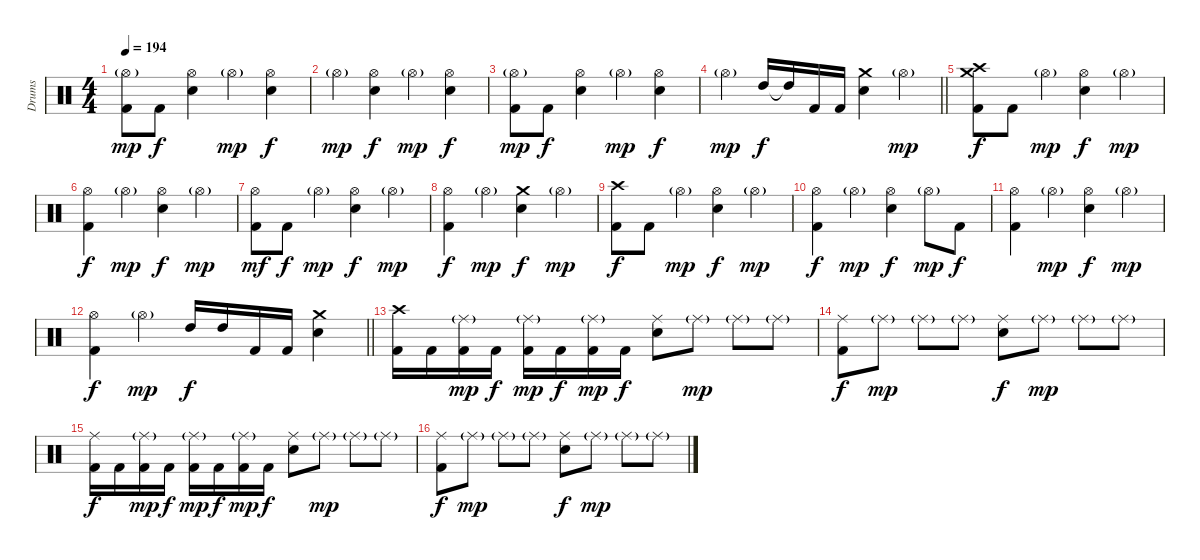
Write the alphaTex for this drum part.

\track ("Drums" "Drums") {instrument percussion}
\staff {score}
\articulation defaults
\ts (4 4)
\tempo 194
\clef neutral
\ks c
("Hi-Hat (open)"{g} "Kick (hit) 2").8{dy mp} "Kick (hit) 2".8{dy f} ("Hi-Hat (open)" "Electric Snare (hit)").4 "Hi-Hat (open)"{g}.4{dy mp} ("Hi-Hat (open)" "Electric Snare (hit)").4{dy f} |
"Hi-Hat (open)"{g}.4{dy mp} ("Hi-Hat (open)" "Electric Snare (hit)").4{dy f} "Hi-Hat (open)"{g}.4{dy mp} ("Hi-Hat (open)" "Electric Snare (hit)").4{dy f} |
("Hi-Hat (open)"{g} "Kick (hit) 2").8{dy mp} "Kick (hit) 2".8{dy f} ("Hi-Hat (open)" "Electric Snare (hit)").4 "Hi-Hat (open)"{g}.4{dy mp} ("Hi-Hat (open)" "Electric Snare (hit)").4{dy f} |
\barLineRight lightlight "Hi-Hat (open)"{g}.4{dy mp} "High Tom (hit)".16{dy f} "High Tom (hit)"{t}.16 "Kick (hit) 2".16 "Kick (hit) 2".16
("Crash medium (hit)" "Electric Snare (hit)").4 "Hi-Hat (open)"{g}.4{dy mp} |
("Crash high (hit)" "Crash medium (hit)" "Kick (hit) 2").8{dy f} "Kick (hit) 2".8 "Hi-Hat (open)"{g}.4{dy mp} ("Hi-Hat (open)" "Electric Snare (hit)").4{dy f} "Hi-Hat (open)"{g}.4{dy mp} |
("Hi-Hat (open)" "Kick (hit) 2").4{dy f} "Hi-Hat (open)"{g}.4{dy mp} ("Hi-Hat (open)" "Electric Snare (hit)").4{dy f} "Hi-Hat (open)"{g}.4{dy mp} |
("Hi-Hat (open)" "Kick (hit) 2").8{dy mf} "Kick (hit) 2".8{dy f} "Hi-Hat (open)"{g}.4{dy mp} ("Hi-Hat (open)" "Electric Snare (hit)").4{dy f} "Hi-Hat (open)"{g}.4{dy mp} |
("Hi-Hat (open)" "Kick (hit) 2").4{dy f} "Hi-Hat (open)"{g}.4{dy mp} ("Crash medium (hit)" "Electric Snare (hit)").4{dy f} "Hi-Hat (open)"{g}.4{dy mp} |
("Crash high (hit)" "Kick (hit) 2").8{dy f} "Kick (hit) 2".8 "Hi-Hat (open)"{g}.4{dy mp} ("Hi-Hat (open)" "Electric Snare (hit)").4{dy f} "Hi-Hat (open)"{g}.4{dy mp} |
("Hi-Hat (open)" "Kick (hit) 2").4{dy f} "Hi-Hat (open)"{g}.4{dy mp} ("Hi-Hat (open)" "Electric Snare (hit)").4{dy f} "Hi-Hat (open)"{g}.8{dy mp} "Kick (hit) 2".8{dy f} |
("Hi-Hat (open)" "Kick (hit) 2").4 "Hi-Hat (open)"{g}.4{dy mp} ("Hi-Hat (open)" "Electric Snare (hit)").4{dy f} "Hi-Hat (open)"{g}.4{dy mp} |
\barLineRight lightlight
("Hi-Hat (open)" "Kick (hit) 2").4{dy f} "Hi-Hat (open)"{g}.4{dy mp} "High Tom (hit)".16{dy f} "High Tom (hit)".16 "Kick (hit) 2".16 "Kick (hit) 2".16 ("Crash medium (hit)" "Electric Snare (hit)").4 |
("Crash high (hit)" "Kick (hit) 2").16 "Kick (hit) 2".16 ("Ride (middle)"{g} "Kick (hit) 2").16{dy mp} "Kick (hit) 2".16{dy f} ("Ride (middle)"{g} "Kick (hit) 2").16{dy mp} "Kick (hit) 2".16{dy f} ("Ride (middle)"{g} "Kick (hit) 2").16{dy mp} "Kick (hit) 2".16{dy f} ("Ride (middle)" "Electric Snare (hit)").8 "Ride (middle)"{g}.8{dy mp} "Ride (middle)"{g}.8 "Ride (middle)"{g}.8 |
("Ride (middle)" "Kick (hit) 2").8{dy f} "Ride (middle)"{g}.8{dy mp} "Ride (middle)"{g}.8 "Ride (middle)"{g}.8 ("Ride (middle)" "Electric Snare (hit)").8{dy f} "Ride (middle)"{g}.8{dy mp} "Ride (middle)"{g}.8 "Ride (middle)"{g}.8 |
("Ride (middle)" "Kick (hit) 2").16{dy f} "Kick (hit) 2".16 ("Ride (middle)"{g} "Kick (hit) 2").16{dy mp} "Kick (hit) 2".16{dy f} ("Ride (middle)"{g} "Kick (hit) 2").16{dy mp} "Kick (hit) 2".16{dy f} ("Ride (middle)"{g} "Kick (hit) 2").16{dy mp} "Kick (hit) 2".16{dy f} ("Ride (middle)" "Electric Snare (hit)").8 "Ride (middle)"{g}.8{dy mp} "Ride (middle)"{g}.8 "Ride (middle)"{g}.8 |
("Ride (middle)" "Kick (hit) 2").8{dy f} "Ride (middle)"{g}.8{dy mp} "Ride (middle)"{g}.8 "Ride (middle)"{g}.8 ("Ride (middle)" "Electric Snare (hit)").8{dy f} "Ride (middle)"{g}.8{dy mp} "Ride (middle)"{g}.8 "Ride (middle)"{g}.8
